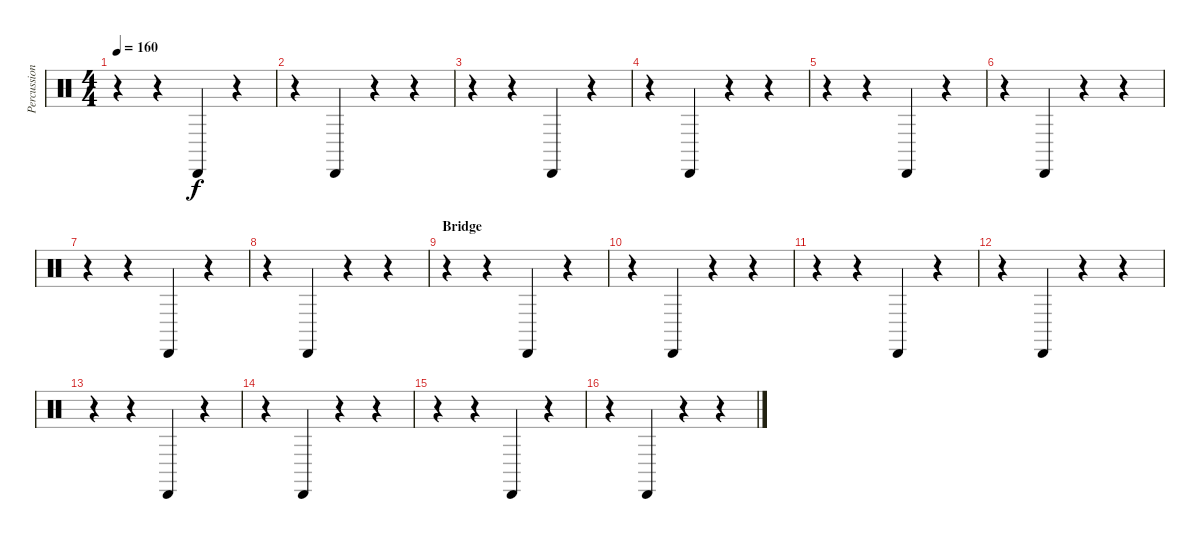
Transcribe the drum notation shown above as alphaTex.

\track ("Percussion" "Percussion") {instrument percussion}
\staff {score}
\articulation defaults
\ts (4 4)
\tempo 160
\clef neutral
\ks c
r.4{dy f} r.4 "Cabasa (hit)".4 r.4 |
r.4 "Cabasa (hit)".4 r.4 r.4 |
r.4 r.4 "Cabasa (hit)".4 r.4 |
r.4 "Cabasa (hit)".4 r.4 r.4 |
r.4 r.4 "Cabasa (hit)".4 r.4 |
r.4 "Cabasa (hit)".4 r.4 r.4 |
r.4 r.4 "Cabasa (hit)".4 r.4 |
r.4 "Cabasa (hit)".4 r.4 r.4 |
\section ("" "Bridge")
r.4 r.4 "Cabasa (hit)".4 r.4 |
r.4 "Cabasa (hit)".4 r.4 r.4 |
r.4 r.4 "Cabasa (hit)".4 r.4 |
r.4 "Cabasa (hit)".4 r.4 r.4 |
r.4 r.4 "Cabasa (hit)".4 r.4 |
r.4 "Cabasa (hit)".4 r.4 r.4 |
r.4 r.4 "Cabasa (hit)".4 r.4 |
r.4 "Cabasa (hit)".4 r.4 r.4
